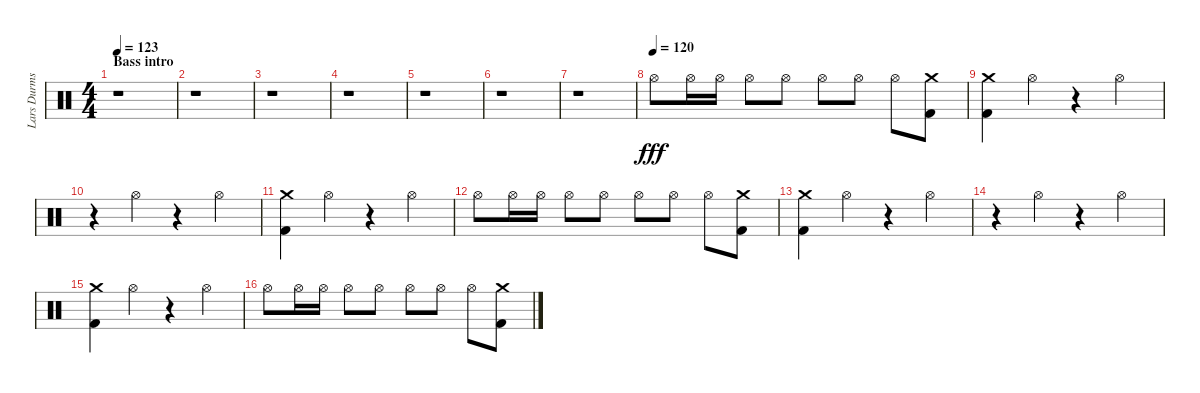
\track ("Lars Durms" "Lars Durms") {instrument percussion}
\staff {score}
\articulation defaults
\ts (4 4)
\section ("" "Bass intro")
\tempo 123
\tempo 120
\tempo 123
\clef neutral
\ks c
r.1{dy fff} |
r.1 |
r.1 |
r.1 |
r.1 |
r.1 |
r.1 |
\tempo (120)
"Hi-Hat (open)".8 "Hi-Hat (open)".16 "Hi-Hat (open)".16 "Hi-Hat (open)".8 "Hi-Hat (open)".8 "Hi-Hat (open)".8 "Hi-Hat (open)".8 "Hi-Hat (open)".8 ("Kick (hit) 2" "Crash medium (hit)").8 |
("Kick (hit) 2" "Crash medium (hit)").4 "Hi-Hat (open)".4 r.4 "Hi-Hat (open)".4 |
r.4 "Hi-Hat (open)".4 r.4 "Hi-Hat (open)".4 |
("Kick (hit) 2" "Crash medium (hit)").4 "Hi-Hat (open)".4 r.4 "Hi-Hat (open)".4 |
"Hi-Hat (open)".8 "Hi-Hat (open)".16 "Hi-Hat (open)".16 "Hi-Hat (open)".8 "Hi-Hat (open)".8 "Hi-Hat (open)".8 "Hi-Hat (open)".8 "Hi-Hat (open)".8 ("Kick (hit) 2" "Crash medium (hit)").8 |
("Kick (hit) 2" "Crash medium (hit)").4 "Hi-Hat (open)".4 r.4 "Hi-Hat (open)".4 |
r.4 "Hi-Hat (open)".4 r.4 "Hi-Hat (open)".4 |
("Kick (hit) 2" "Crash medium (hit)").4 "Hi-Hat (open)".4 r.4 "Hi-Hat (open)".4 |
"Hi-Hat (open)".8 "Hi-Hat (open)".16 "Hi-Hat (open)".16 "Hi-Hat (open)".8 "Hi-Hat (open)".8 "Hi-Hat (open)".8 "Hi-Hat (open)".8 "Hi-Hat (open)".8 ("Kick (hit) 2" "Crash medium (hit)").8
